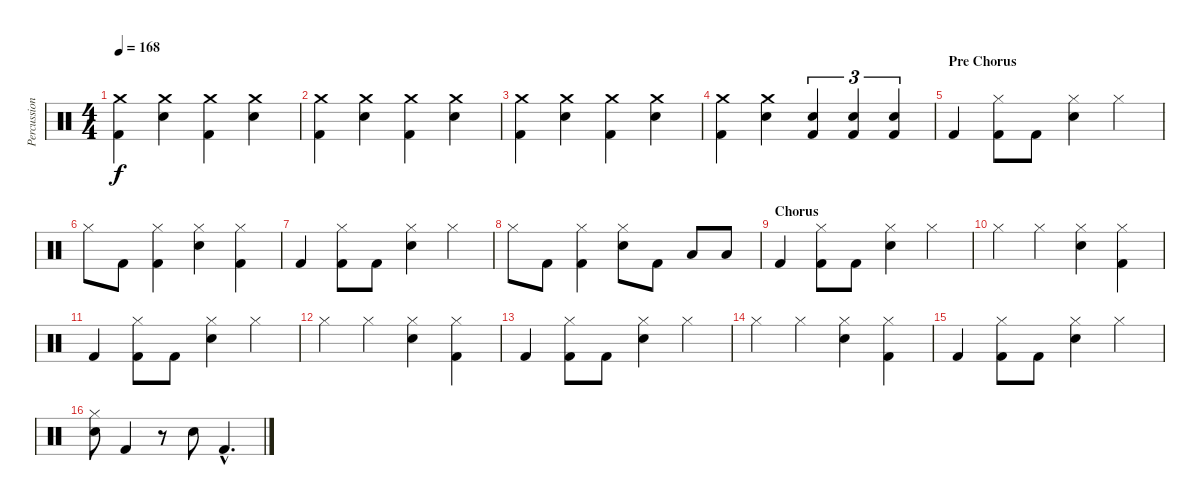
\track ("Percussion" "Percussion") {instrument percussion}
\staff {score}
\articulation defaults
\ts (4 4)
\tempo 168
\clef neutral
\ks c
("Crash medium (hit)" "Kick (hit) 2").4{dy f} ("Crash medium (hit)" "Snare (hit) 2").4 ("Crash medium (hit)" "Kick (hit) 2").4 ("Crash medium (hit)" "Snare (hit) 2").4 |
("Crash medium (hit)" "Kick (hit) 2").4 ("Crash medium (hit)" "Snare (hit) 2").4 ("Crash medium (hit)" "Kick (hit) 2").4 ("Crash medium (hit)" "Snare (hit) 2").4 |
("Crash medium (hit)" "Kick (hit) 2").4 ("Crash medium (hit)" "Snare (hit) 2").4 ("Crash medium (hit)" "Kick (hit) 2").4 ("Crash medium (hit)" "Snare (hit) 2").4 |
("Crash medium (hit)" "Kick (hit) 2").4 ("Crash medium (hit)" "Snare (hit) 2").4 ("Snare (hit) 2" "Kick (hit) 2").4{tu (3 2)} ("Snare (hit) 2" "Kick (hit) 2").4{tu (3 2)} ("Snare (hit) 2" "Kick (hit) 2").4{tu (3 2)} |
\section ("" "Pre Chorus")
"Kick (hit) 2".4 ("Hi-Hat (closed)" "Kick (hit) 2").8 "Kick (hit) 2".8 ("Hi-Hat (closed)" "Snare (hit) 2").4 "Hi-Hat (closed)".4 |
"Hi-Hat (closed)".8 "Kick (hit) 2".8 ("Hi-Hat (closed)" "Kick (hit) 2").4 ("Hi-Hat (closed)" "Snare (hit) 2").4 ("Hi-Hat (closed)" "Kick (hit) 2").4 |
"Kick (hit) 2".4 ("Hi-Hat (closed)" "Kick (hit) 2").8 "Kick (hit) 2".8 ("Hi-Hat (closed)" "Snare (hit) 2").4 "Hi-Hat (closed)".4 |
"Hi-Hat (closed)".8 "Kick (hit) 2".8 ("Hi-Hat (closed)" "Kick (hit) 2").4 ("Hi-Hat (closed)" "Snare (hit) 2").8 "Kick (hit) 2".8 "Low Tom (hit)".8 "Low Tom (hit)".8 |
\section ("" "Chorus")
"Kick (hit) 2".4 ("Hi-Hat (closed)" "Kick (hit) 2").8 "Kick (hit) 2".8 ("Hi-Hat (closed)" "Snare (hit) 2").4 "Hi-Hat (closed)".4 |
"Hi-Hat (closed)".4 "Hi-Hat (closed)".4 ("Hi-Hat (closed)" "Snare (hit) 2").4 ("Hi-Hat (closed)" "Kick (hit) 2").4 |
"Kick (hit) 2".4 ("Hi-Hat (closed)" "Kick (hit) 2").8 "Kick (hit) 2".8 ("Hi-Hat (closed)" "Snare (hit) 2").4 "Hi-Hat (closed)".4 |
"Hi-Hat (closed)".4 "Hi-Hat (closed)".4 ("Hi-Hat (closed)" "Snare (hit) 2").4 ("Hi-Hat (closed)" "Kick (hit) 2").4 |
"Kick (hit) 2".4 ("Hi-Hat (closed)" "Kick (hit) 2").8 "Kick (hit) 2".8 ("Hi-Hat (closed)" "Snare (hit) 2").4 "Hi-Hat (closed)".4 |
"Hi-Hat (closed)".4 "Hi-Hat (closed)".4 ("Hi-Hat (closed)" "Snare (hit) 2").4 ("Hi-Hat (closed)" "Kick (hit) 2").4 |
"Kick (hit) 2".4 ("Hi-Hat (closed)" "Kick (hit) 2").8 "Kick (hit) 2".8 ("Hi-Hat (closed)" "Snare (hit) 2").4 "Hi-Hat (closed)".4 |
("Hi-Hat (closed)" "Snare (hit) 2").8 "Kick (hit) 2".4 r.8 "Snare (hit) 2".8 "Kick (hit) 2"{hac}.4{d}
